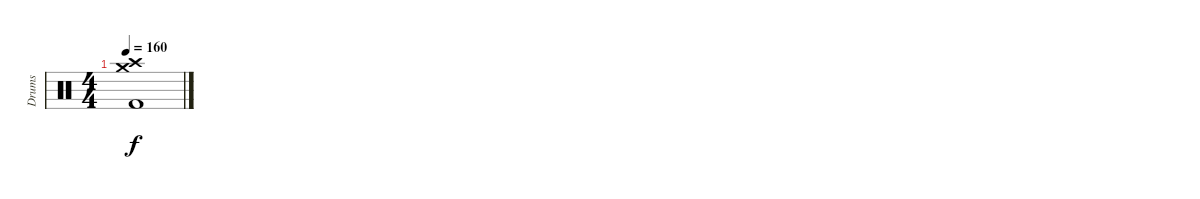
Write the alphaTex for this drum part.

\track ("Drums" "Drums") {instrument percussion}
\staff {score}
\articulation defaults
\ts (4 4)
\tempo 160
\clef neutral
\ks c
("Kick (hit) 2" "Crash high (hit)" "Crash medium (hit)").1{dy f}
